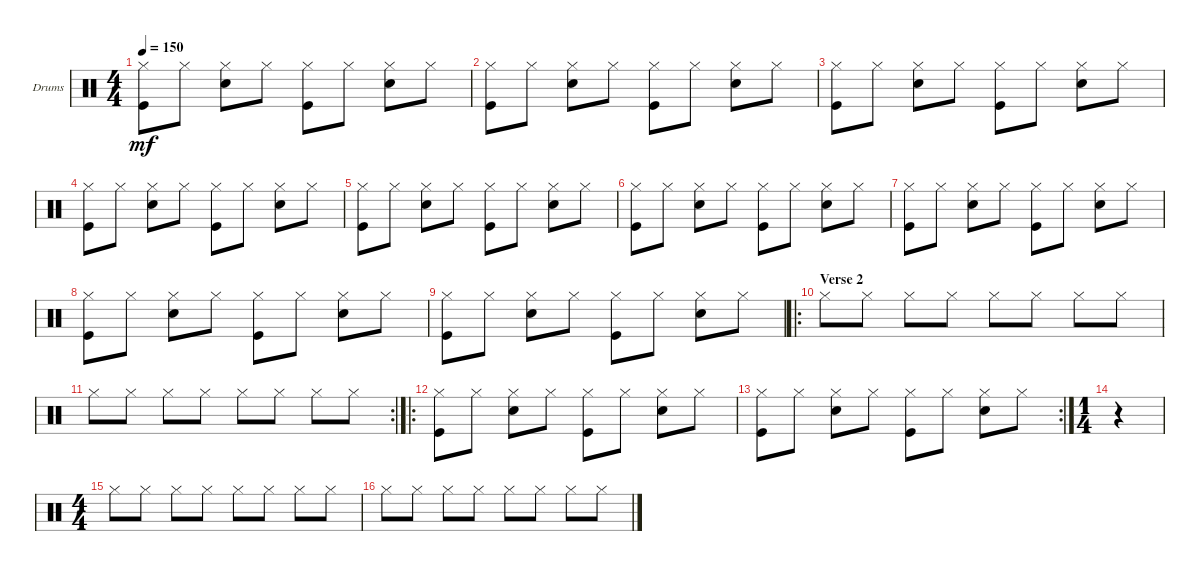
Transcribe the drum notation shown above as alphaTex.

\defaultSystemsLayout 4
\bracketExtendMode groupsimilarinstruments
\firstSystemTrackNameOrientation horizontal
\otherSystemsTrackNameOrientation horizontal
\chordDiagramsInScore
\track ("Drumkit" "Drums") {instrument percussion}
\staff {score}
\articulation defaults
\ts (4 4)
\tempo 150
\clef neutral
\ks c
("Kick (hit)" "Hi-Hat (closed)").8{dy mf} "Hi-Hat (closed)".8 ("Snare (hit) 2" "Hi-Hat (closed)").8 "Hi-Hat (closed)".8 ("Kick (hit)" "Hi-Hat (closed)").8 "Hi-Hat (closed)".8 ("Snare (hit) 2" "Hi-Hat (closed)").8 "Hi-Hat (closed)".8 |
("Kick (hit)" "Hi-Hat (closed)").8 "Hi-Hat (closed)".8 ("Snare (hit) 2" "Hi-Hat (closed)").8 "Hi-Hat (closed)".8 ("Kick (hit)" "Hi-Hat (closed)").8 "Hi-Hat (closed)".8 ("Snare (hit) 2" "Hi-Hat (closed)").8 "Hi-Hat (closed)".8 |
("Kick (hit)" "Hi-Hat (closed)").8 "Hi-Hat (closed)".8 ("Snare (hit) 2" "Hi-Hat (closed)").8 "Hi-Hat (closed)".8 ("Kick (hit)" "Hi-Hat (closed)").8 "Hi-Hat (closed)".8 ("Snare (hit) 2" "Hi-Hat (closed)").8 "Hi-Hat (closed)".8 |
("Kick (hit)" "Hi-Hat (closed)").8 "Hi-Hat (closed)".8 ("Snare (hit) 2" "Hi-Hat (closed)").8 "Hi-Hat (closed)".8 ("Kick (hit)" "Hi-Hat (closed)").8 "Hi-Hat (closed)".8 ("Snare (hit) 2" "Hi-Hat (closed)").8 "Hi-Hat (closed)".8 |
("Kick (hit)" "Hi-Hat (closed)").8 "Hi-Hat (closed)".8 ("Snare (hit) 2" "Hi-Hat (closed)").8 "Hi-Hat (closed)".8 ("Kick (hit)" "Hi-Hat (closed)").8 "Hi-Hat (closed)".8 ("Snare (hit) 2" "Hi-Hat (closed)").8 "Hi-Hat (closed)".8 |
\scale
0.333333 ("Kick (hit)" "Hi-Hat (closed)").8 "Hi-Hat (closed)".8 ("Snare (hit) 2" "Hi-Hat (closed)").8 "Hi-Hat (closed)".8 ("Kick (hit)" "Hi-Hat (closed)").8 "Hi-Hat (closed)".8 ("Snare (hit) 2" "Hi-Hat (closed)").8 "Hi-Hat (closed)".8 |
\scale
0.333333 ("Kick (hit)" "Hi-Hat (closed)").8 "Hi-Hat (closed)".8 ("Snare (hit) 2" "Hi-Hat (closed)").8 "Hi-Hat (closed)".8 ("Kick (hit)" "Hi-Hat (closed)").8 "Hi-Hat (closed)".8 ("Snare (hit) 2" "Hi-Hat (closed)").8 "Hi-Hat (closed)".8 |
\scale
0.333333 ("Kick (hit)" "Hi-Hat (closed)").8 "Hi-Hat (closed)".8 ("Snare (hit) 2" "Hi-Hat (closed)").8 "Hi-Hat (closed)".8 ("Kick (hit)" "Hi-Hat (closed)").8 "Hi-Hat (closed)".8 ("Snare (hit) 2" "Hi-Hat (closed)").8 "Hi-Hat (closed)".8 |
("Kick (hit)" "Hi-Hat (closed)").8 "Hi-Hat (closed)".8 ("Snare (hit) 2" "Hi-Hat (closed)").8 "Hi-Hat (closed)".8 ("Kick (hit)" "Hi-Hat (closed)").8 "Hi-Hat (closed)".8 ("Snare (hit) 2" "Hi-Hat (closed)").8 "Hi-Hat (closed)".8 |
\ro
\section ("" "Verse 2")
"Hi-Hat (closed)".8 "Hi-Hat (closed)".8 "Hi-Hat (closed)".8 "Hi-Hat (closed)".8 "Hi-Hat (closed)".8 "Hi-Hat (closed)".8 "Hi-Hat (closed)".8 "Hi-Hat (closed)".8 |
\rc 2 "Hi-Hat (closed)".8 "Hi-Hat (closed)".8 "Hi-Hat (closed)".8 "Hi-Hat (closed)".8 "Hi-Hat (closed)".8 "Hi-Hat (closed)".8 "Hi-Hat (closed)".8 "Hi-Hat (closed)".8
|
\ro
("Kick (hit)" "Hi-Hat (closed)").8 "Hi-Hat (closed)".8 ("Snare (hit) 2" "Hi-Hat (closed)").8 "Hi-Hat (closed)".8 ("Kick (hit)" "Hi-Hat (closed)").8 "Hi-Hat (closed)".8 ("Snare (hit) 2" "Hi-Hat (closed)").8 "Hi-Hat (closed)".8 |
\rc 2
("Kick (hit)" "Hi-Hat (closed)").8 "Hi-Hat (closed)".8 ("Snare (hit) 2" "Hi-Hat (closed)").8 "Hi-Hat (closed)".8 ("Kick (hit)" "Hi-Hat (closed)").8 "Hi-Hat (closed)".8 ("Snare (hit) 2" "Hi-Hat (closed)").8 "Hi-Hat (closed)".8 |
\ts (1 4)
r.4 |
\ts (4 4)
"Hi-Hat (closed)".8 "Hi-Hat (closed)".8 "Hi-Hat (closed)".8 "Hi-Hat (closed)".8 "Hi-Hat (closed)".8 "Hi-Hat (closed)".8 "Hi-Hat (closed)".8 "Hi-Hat (closed)".8 |
"Hi-Hat (closed)".8 "Hi-Hat (closed)".8 "Hi-Hat (closed)".8 "Hi-Hat (closed)".8 "Hi-Hat (closed)".8 "Hi-Hat (closed)".8 "Hi-Hat (closed)".8 "Hi-Hat (closed)".8
